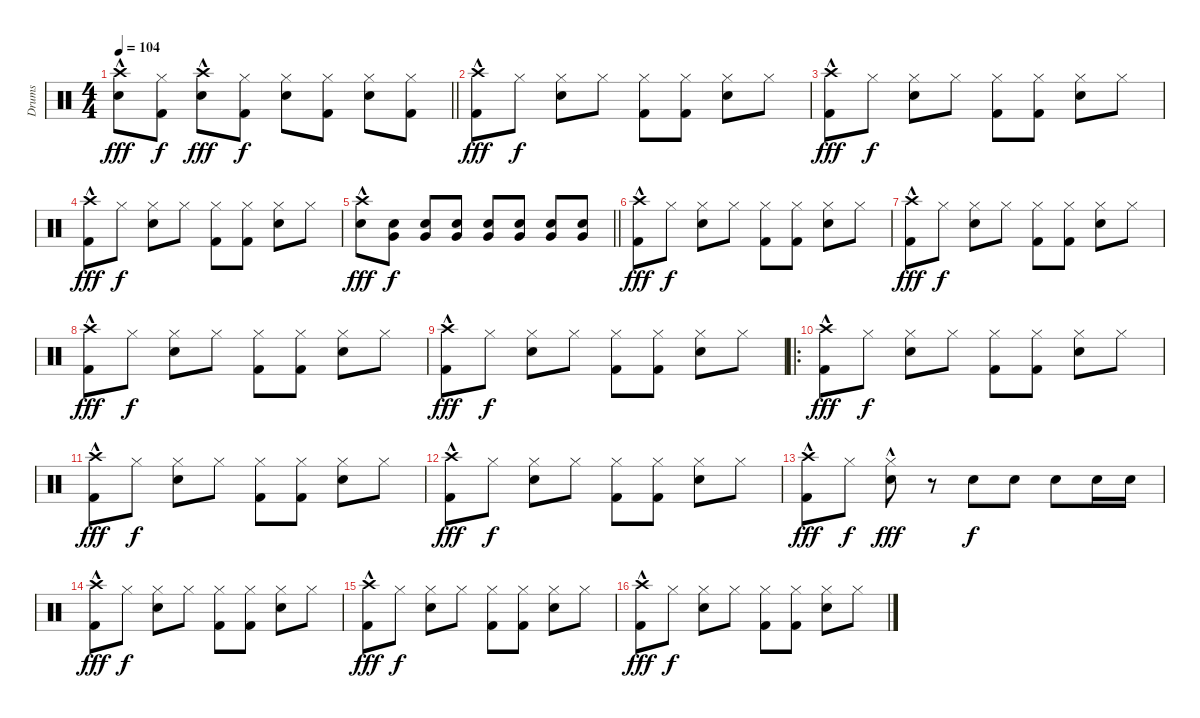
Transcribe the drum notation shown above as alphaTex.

\track ("Drums" "Drums") {instrument percussion}
\staff {score}
\articulation defaults
\ts (4 4)
\tempo 104
\clef neutral
\barLineRight lightlight
\ks c
("Crash high (hit)"{hac} "Snare (hit) 2").8{dy fff} ("Hi-Hat (closed)" "Kick (hit) 2").8{dy f} ("Crash high (hit)"{hac} "Snare (hit) 2").8{dy fff} ("Hi-Hat (closed)" "Kick (hit) 2").8{dy f} ("Hi-Hat (closed)" "Snare (hit) 2").8 ("Hi-Hat (closed)" "Kick (hit) 2").8 ("Hi-Hat (closed)" "Snare (hit) 2").8 ("Hi-Hat (closed)" "Kick (hit) 2").8 |
("Crash high (hit)"{hac} "Kick (hit) 2").8{dy fff} "Hi-Hat (closed)".8{dy f} ("Hi-Hat (closed)" "Snare (hit) 2").8 "Hi-Hat (closed)".8 ("Hi-Hat (closed)" "Kick (hit) 2").8 ("Hi-Hat (closed)" "Kick (hit) 2").8 ("Hi-Hat (closed)" "Snare (hit) 2").8 "Hi-Hat (closed)".8 |
("Crash high (hit)"{hac} "Kick (hit) 2").8{dy fff} "Hi-Hat (closed)".8{dy f} ("Hi-Hat (closed)" "Snare (hit) 2").8 "Hi-Hat (closed)".8 ("Hi-Hat (closed)" "Kick (hit) 2").8 ("Hi-Hat (closed)" "Kick (hit) 2").8 ("Hi-Hat (closed)" "Snare (hit) 2").8 "Hi-Hat (closed)".8 |
("Crash high (hit)"{hac} "Kick (hit) 2").8{dy fff} "Hi-Hat (closed)".8{dy f} ("Hi-Hat (closed)" "Snare (hit) 2").8 "Hi-Hat (closed)".8 ("Hi-Hat (closed)" "Kick (hit) 2").8 ("Hi-Hat (closed)" "Kick (hit) 2").8 ("Hi-Hat (closed)" "Snare (hit) 2").8 "Hi-Hat (closed)".8 |
\barLineRight lightlight
("Crash high (hit)"{hac} "Snare (hit) 2").8{dy fff} ("Snare (hit) 2" "Very Low Tom (hit)").8{dy f} ("Snare (hit) 2" "Very Low Tom (hit)").8 ("Snare (hit) 2" "Very Low Tom (hit)").8 ("Snare (hit) 2" "Very Low Tom (hit)").8 ("Snare (hit) 2" "Very Low Tom (hit)").8 ("Snare (hit) 2" "Very Low Tom (hit)").8 ("Snare (hit) 2" "Very Low Tom (hit)").8 |
("Crash high (hit)"{hac} "Kick (hit) 2").8{dy fff} "Hi-Hat (closed)".8{dy f} ("Hi-Hat (closed)" "Snare (hit) 2").8 "Hi-Hat (closed)".8 ("Hi-Hat (closed)" "Kick (hit) 2").8 ("Hi-Hat (closed)" "Kick (hit) 2").8 ("Hi-Hat (closed)" "Snare (hit) 2").8 "Hi-Hat (closed)".8 |
("Crash high (hit)"{hac} "Kick (hit) 2").8{dy fff} "Hi-Hat (closed)".8{dy f} ("Hi-Hat (closed)" "Snare (hit) 2").8 "Hi-Hat (closed)".8 ("Hi-Hat (closed)" "Kick (hit) 2").8 ("Hi-Hat (closed)" "Kick (hit) 2").8 ("Hi-Hat (closed)" "Snare (hit) 2").8 "Hi-Hat (closed)".8 |
("Crash high (hit)"{hac} "Kick (hit) 2").8{dy fff} "Hi-Hat (closed)".8{dy f} ("Hi-Hat (closed)" "Snare (hit) 2").8 "Hi-Hat (closed)".8 ("Hi-Hat (closed)" "Kick (hit) 2").8 ("Hi-Hat (closed)" "Kick (hit) 2").8 ("Hi-Hat (closed)" "Snare (hit) 2").8 "Hi-Hat (closed)".8 |
("Crash high (hit)"{hac} "Kick (hit) 2").8{dy fff} "Hi-Hat (closed)".8{dy f} ("Hi-Hat (closed)" "Snare (hit) 2").8 "Hi-Hat (closed)".8 ("Hi-Hat (closed)" "Kick (hit) 2").8 ("Hi-Hat (closed)" "Kick (hit) 2").8 ("Hi-Hat (closed)" "Snare (hit) 2").8 "Hi-Hat (closed)".8 |
\ro
("Crash high (hit)"{hac} "Kick (hit) 2").8{dy fff} "Hi-Hat (closed)".8{dy f} ("Hi-Hat (closed)" "Snare (hit) 2").8 "Hi-Hat (closed)".8 ("Hi-Hat (closed)" "Kick (hit) 2").8 ("Hi-Hat (closed)" "Kick (hit) 2").8 ("Hi-Hat (closed)" "Snare (hit) 2").8 "Hi-Hat (closed)".8 |
("Crash high (hit)"{hac} "Kick (hit) 2").8{dy fff} "Hi-Hat (closed)".8{dy f} ("Hi-Hat (closed)" "Snare (hit) 2").8 "Hi-Hat (closed)".8 ("Hi-Hat (closed)" "Kick (hit) 2").8 ("Hi-Hat (closed)" "Kick (hit) 2").8 ("Hi-Hat (closed)" "Snare (hit) 2").8 "Hi-Hat (closed)".8 |
("Crash high (hit)"{hac} "Kick (hit) 2").8{dy fff} "Hi-Hat (closed)".8{dy f} ("Hi-Hat (closed)" "Snare (hit) 2").8 "Hi-Hat (closed)".8 ("Hi-Hat (closed)" "Kick (hit) 2").8 ("Hi-Hat (closed)" "Kick (hit) 2").8 ("Hi-Hat (closed)" "Snare (hit) 2").8 "Hi-Hat (closed)".8 |
("Crash high (hit)"{hac} "Kick (hit) 2").8{dy fff} "Hi-Hat (closed)".8{dy f} ("Hi-Hat (closed)"{hac} "Snare (hit) 2").8{dy fff} r.8 "Snare (hit) 2".8{dy f} "Snare (hit) 2".8 "Snare (hit) 2".8 "Snare (hit) 2".16 "Snare (hit) 2".16 |
("Crash high (hit)"{hac} "Kick (hit) 2").8{dy fff} "Hi-Hat (closed)".8{dy f} ("Hi-Hat (closed)" "Snare (hit) 2").8 "Hi-Hat (closed)".8 ("Hi-Hat (closed)" "Kick (hit) 2").8 ("Hi-Hat (closed)" "Kick (hit) 2").8 ("Hi-Hat (closed)" "Snare (hit) 2").8 "Hi-Hat (closed)".8 |
("Crash high (hit)"{hac} "Kick (hit) 2").8{dy fff} "Hi-Hat (closed)".8{dy f} ("Hi-Hat (closed)" "Snare (hit) 2").8 "Hi-Hat (closed)".8 ("Hi-Hat (closed)" "Kick (hit) 2").8 ("Hi-Hat (closed)" "Kick (hit) 2").8 ("Hi-Hat (closed)" "Snare (hit) 2").8 "Hi-Hat (closed)".8 |
("Crash high (hit)"{hac} "Kick (hit) 2").8{dy fff} "Hi-Hat (closed)".8{dy f} ("Hi-Hat (closed)" "Snare (hit) 2").8 "Hi-Hat (closed)".8 ("Hi-Hat (closed)" "Kick (hit) 2").8 ("Hi-Hat (closed)" "Kick (hit) 2").8 ("Hi-Hat (closed)" "Snare (hit) 2").8 "Hi-Hat (closed)".8
